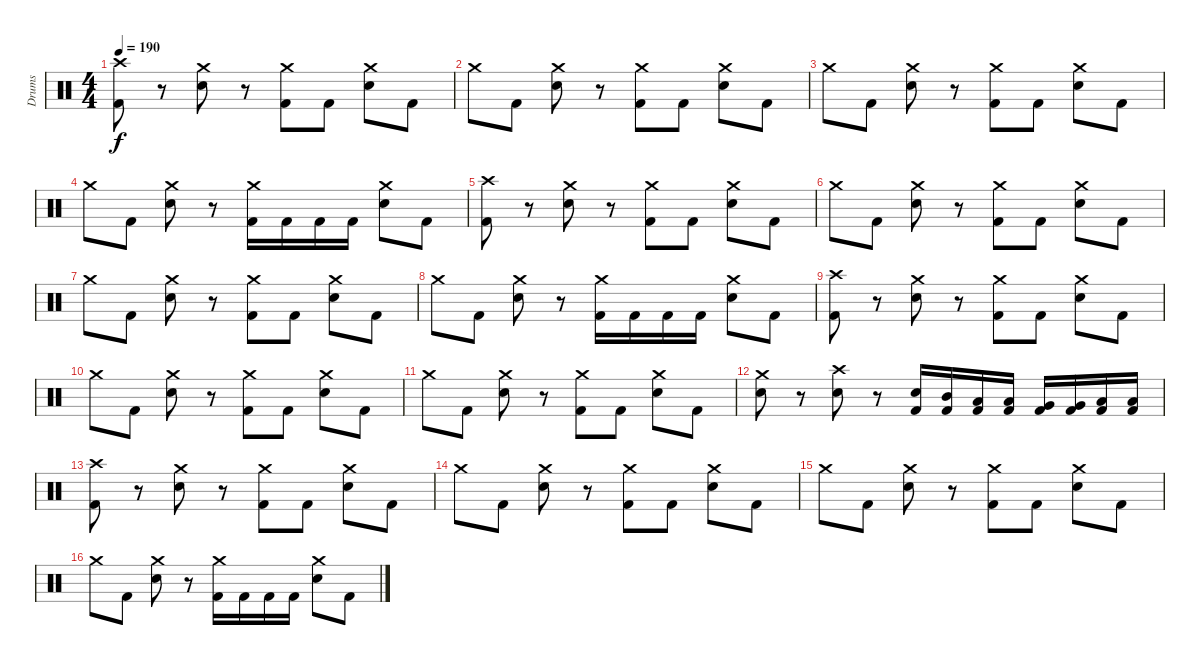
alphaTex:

\track ("Drums" "Drums") {instrument percussion}
\staff {score}
\articulation defaults
\ts (4 4)
\tempo 190
\clef neutral
\ks c
("Crash high (hit)" "Kick (hit) 2").8{dy f} r.8 ("Crash medium (hit)" "Electric Snare (hit)").8 r.8 ("Crash medium (hit)" "Kick (hit) 2").8 "Kick (hit) 2".8 ("Crash medium (hit)" "Electric Snare (hit)").8 "Kick (hit) 2".8 |
"Crash medium (hit)".8 "Kick (hit) 2".8 ("Crash medium (hit)" "Electric Snare (hit)").8 r.8 ("Crash medium (hit)" "Kick (hit) 2").8 "Kick (hit) 2".8 ("Crash medium (hit)" "Electric Snare (hit)").8 "Kick (hit) 2".8 |
"Crash medium (hit)".8 "Kick (hit) 2".8 ("Crash medium (hit)" "Electric Snare (hit)").8 r.8 ("Crash medium (hit)" "Kick (hit) 2").8 "Kick (hit) 2".8 ("Crash medium (hit)" "Electric Snare (hit)").8 "Kick (hit) 2".8 |
"Crash medium (hit)".8 "Kick (hit) 2".8 ("Crash medium (hit)" "Electric Snare (hit)").8 r.8 ("Crash medium (hit)" "Kick (hit) 2").16 "Kick (hit) 2".16 "Kick (hit) 2".16 "Kick (hit) 2".16 ("Crash medium (hit)" "Electric Snare (hit)").8 "Kick (hit) 2".8 |
("Crash high (hit)" "Kick (hit) 2").8 r.8 ("Crash medium (hit)" "Electric Snare (hit)").8 r.8 ("Crash medium (hit)" "Kick (hit) 2").8 "Kick (hit) 2".8 ("Crash medium (hit)" "Electric Snare (hit)").8 "Kick (hit) 2".8 |
"Crash medium (hit)".8 "Kick (hit) 2".8 ("Crash medium (hit)" "Electric Snare (hit)").8 r.8 ("Crash medium (hit)" "Kick (hit) 2").8 "Kick (hit) 2".8 ("Crash medium (hit)" "Electric Snare (hit)").8 "Kick (hit) 2".8 |
"Crash medium (hit)".8 "Kick (hit) 2".8 ("Crash medium (hit)" "Electric Snare (hit)").8 r.8 ("Crash medium (hit)" "Kick (hit) 2").8 "Kick (hit) 2".8 ("Crash medium (hit)" "Electric Snare (hit)").8 "Kick (hit) 2".8 |
"Crash medium (hit)".8 "Kick (hit) 2".8 ("Crash medium (hit)" "Electric Snare (hit)").8 r.8 ("Crash medium (hit)" "Kick (hit) 2").16 "Kick (hit) 2".16 "Kick (hit) 2".16 "Kick (hit) 2".16 ("Crash medium (hit)" "Electric Snare (hit)").8 "Kick (hit) 2".8 |
("Crash high (hit)" "Kick (hit) 2").8 r.8 ("Crash medium (hit)" "Electric Snare (hit)").8 r.8 ("Crash medium (hit)" "Kick (hit) 2").8 "Kick (hit) 2".8 ("Crash medium (hit)" "Electric Snare (hit)").8 "Kick (hit) 2".8 |
"Crash medium (hit)".8 "Kick (hit) 2".8 ("Crash medium (hit)" "Electric Snare (hit)").8 r.8 ("Crash medium (hit)" "Kick (hit) 2").8 "Kick (hit) 2".8 ("Crash medium (hit)" "Electric Snare (hit)").8 "Kick (hit) 2".8 |
"Crash medium (hit)".8 "Kick (hit) 2".8 ("Crash medium (hit)" "Electric Snare (hit)").8 r.8 ("Crash medium (hit)" "Kick (hit) 2").8 "Kick (hit) 2".8 ("Crash medium (hit)" "Electric Snare (hit)").8 "Kick (hit) 2".8 |
("Crash medium (hit)" "Electric Snare (hit)").8 r.8 ("Crash high (hit)" "Electric Snare (hit)").8 r.8 ("Electric Snare (hit)" "Kick (hit) 2").16 ("Mid Tom (hit)" "Kick (hit) 2").16 ("Low Tom (hit)" "Kick (hit) 2").16 ("Low Tom (hit)" "Kick (hit) 2").16 ("Very Low Tom (hit)" "Kick (hit) 2").16 ("Very Low Tom (hit)" "Kick (hit) 2").16 ("Low Floor Tom (hit)" "Kick (hit) 2").16 ("Low Floor Tom (hit)" "Kick (hit) 2").16 |
("Crash high (hit)" "Kick (hit) 2").8 r.8 ("Crash medium (hit)" "Electric Snare (hit)").8 r.8 ("Crash medium (hit)" "Kick (hit) 2").8 "Kick (hit) 2".8 ("Crash medium (hit)" "Electric Snare (hit)").8 "Kick (hit) 2".8 |
"Crash medium (hit)".8 "Kick (hit) 2".8 ("Crash medium (hit)" "Electric Snare (hit)").8 r.8 ("Crash medium (hit)" "Kick (hit) 2").8 "Kick (hit) 2".8 ("Crash medium (hit)" "Electric Snare (hit)").8 "Kick (hit) 2".8 |
"Crash medium (hit)".8 "Kick (hit) 2".8 ("Crash medium (hit)" "Electric Snare (hit)").8 r.8 ("Crash medium (hit)" "Kick (hit) 2").8 "Kick (hit) 2".8 ("Crash medium (hit)" "Electric Snare (hit)").8 "Kick (hit) 2".8 |
"Crash medium (hit)".8 "Kick (hit) 2".8 ("Crash medium (hit)" "Electric Snare (hit)").8 r.8 ("Crash medium (hit)" "Kick (hit) 2").16 "Kick (hit) 2".16 "Kick (hit) 2".16 "Kick (hit) 2".16 ("Crash medium (hit)" "Electric Snare (hit)").8 "Kick (hit) 2".8
